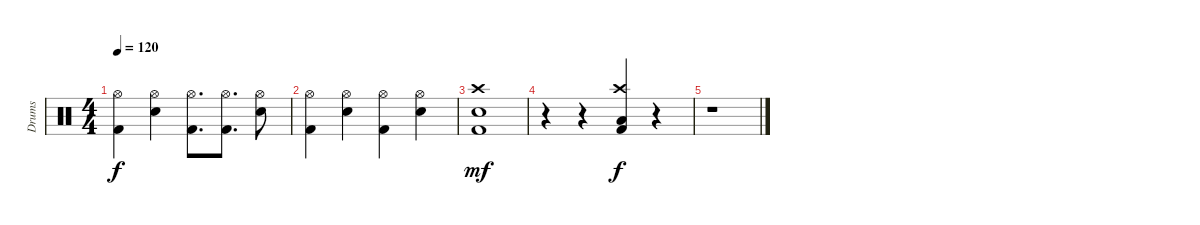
\track ("Drums" "Drums") {instrument percussion}
\staff {score}
\articulation defaults
\ts (4 4)
\tempo 120
\clef neutral
\ks c
("Hi-Hat (open)" "Kick (hit) 2").4{dy f} ("Hi-Hat (open)" "Snare (hit) 2").4 ("Hi-Hat (open)" "Kick (hit) 2").8{d} ("Hi-Hat (open)" "Kick (hit) 2").8{d} ("Hi-Hat (open)" "Snare (hit) 2").8 |
("Hi-Hat (open)" "Kick (hit) 2").4 ("Hi-Hat (open)" "Snare (hit) 2").4 ("Hi-Hat (open)" "Kick (hit) 2").4 ("Hi-Hat (open)" "Snare (hit) 2").4 |
("Crash high (hit)" "Snare (hit) 2" "Kick (hit) 2").1{dy mf} |
r.4 r.4 ("Crash high (hit)" "Low Floor Tom (hit)" "Kick (hit) 2").4{dy f} r.4 |
r.1
